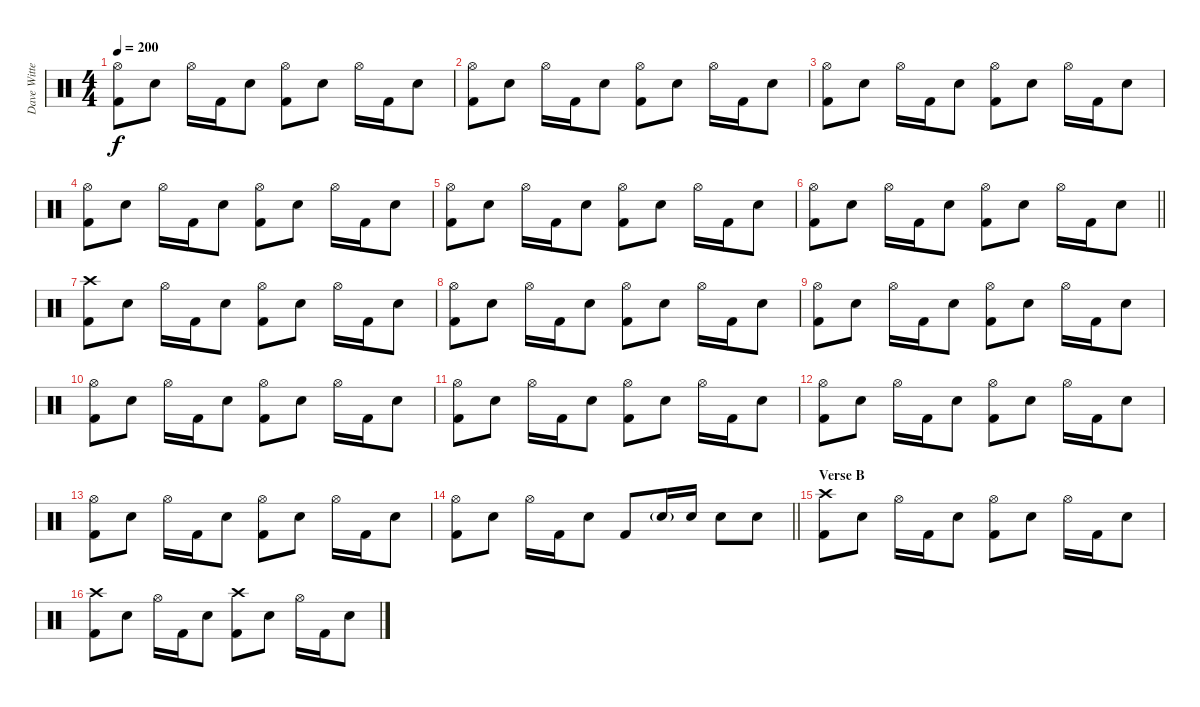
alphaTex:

\track ("Dave Witte" "Dave Witte") {instrument percussion}
\staff {score}
\articulation defaults
\ts (4 4)
\tempo 200
\clef neutral
\ks c
("Hi-Hat (open)" "Kick (hit) 2").8{dy f} "Electric Snare (hit)".8 "Hi-Hat (open)".16 "Kick (hit) 2".16 "Electric Snare (hit)".8 ("Hi-Hat (open)" "Kick (hit) 2").8 "Electric Snare (hit)".8 "Hi-Hat (open)".16 "Kick (hit) 2".16 "Electric Snare (hit)".8 |
("Hi-Hat (open)" "Kick (hit) 2").8 "Electric Snare (hit)".8 "Hi-Hat (open)".16 "Kick (hit) 2".16 "Electric Snare (hit)".8 ("Hi-Hat (open)" "Kick (hit) 2").8 "Electric Snare (hit)".8 "Hi-Hat (open)".16 "Kick (hit) 2".16 "Electric Snare (hit)".8 |
("Hi-Hat (open)" "Kick (hit) 2").8 "Electric Snare (hit)".8 "Hi-Hat (open)".16 "Kick (hit) 2".16 "Electric Snare (hit)".8 ("Hi-Hat (open)" "Kick (hit) 2").8 "Electric Snare (hit)".8 "Hi-Hat (open)".16 "Kick (hit) 2".16 "Electric Snare (hit)".8 |
("Hi-Hat (open)" "Kick (hit) 2").8 "Electric Snare (hit)".8 "Hi-Hat (open)".16 "Kick (hit) 2".16 "Electric Snare (hit)".8 ("Hi-Hat (open)" "Kick (hit) 2").8 "Electric Snare (hit)".8 "Hi-Hat (open)".16 "Kick (hit) 2".16 "Electric Snare (hit)".8 |
("Hi-Hat (open)" "Kick (hit) 2").8 "Electric Snare (hit)".8 "Hi-Hat (open)".16 "Kick (hit) 2".16 "Electric Snare (hit)".8 ("Hi-Hat (open)" "Kick (hit) 2").8 "Electric Snare (hit)".8 "Hi-Hat (open)".16 "Kick (hit) 2".16 "Electric Snare (hit)".8 |
\barLineRight lightlight
("Hi-Hat (open)" "Kick (hit) 2").8 "Electric Snare (hit)".8 "Hi-Hat (open)".16 "Kick (hit) 2".16 "Electric Snare (hit)".8 ("Hi-Hat (open)" "Kick (hit) 2").8 "Electric Snare (hit)".8 "Hi-Hat (open)".16 "Kick (hit) 2".16 "Electric Snare (hit)".8 |
("Crash high (hit)" "Kick (hit) 2").8 "Electric Snare (hit)".8 "Hi-Hat (open)".16 "Kick (hit) 2".16 "Electric Snare (hit)".8 ("Hi-Hat (open)" "Kick (hit) 2").8 "Electric Snare (hit)".8 "Hi-Hat (open)".16 "Kick (hit) 2".16 "Electric Snare (hit)".8 |
("Hi-Hat (open)" "Kick (hit) 2").8 "Electric Snare (hit)".8 "Hi-Hat (open)".16 "Kick (hit) 2".16 "Electric Snare (hit)".8 ("Hi-Hat (open)" "Kick (hit) 2").8 "Electric Snare (hit)".8 "Hi-Hat (open)".16 "Kick (hit) 2".16 "Electric Snare (hit)".8 |
("Hi-Hat (open)" "Kick (hit) 2").8 "Electric Snare (hit)".8 "Hi-Hat (open)".16 "Kick (hit) 2".16 "Electric Snare (hit)".8 ("Hi-Hat (open)" "Kick (hit) 2").8 "Electric Snare (hit)".8 "Hi-Hat (open)".16 "Kick (hit) 2".16 "Electric Snare (hit)".8 |
("Hi-Hat (open)" "Kick (hit) 2").8 "Electric Snare (hit)".8 "Hi-Hat (open)".16 "Kick (hit) 2".16 "Electric Snare (hit)".8 ("Hi-Hat (open)" "Kick (hit) 2").8 "Electric Snare (hit)".8 "Hi-Hat (open)".16 "Kick (hit) 2".16 "Electric Snare (hit)".8 |
("Hi-Hat (open)" "Kick (hit) 2").8 "Electric Snare (hit)".8 "Hi-Hat (open)".16 "Kick (hit) 2".16 "Electric Snare (hit)".8 ("Hi-Hat (open)" "Kick (hit) 2").8 "Electric Snare (hit)".8 "Hi-Hat (open)".16 "Kick (hit) 2".16 "Electric Snare (hit)".8 |
("Hi-Hat (open)" "Kick (hit) 2").8 "Electric Snare (hit)".8 "Hi-Hat (open)".16 "Kick (hit) 2".16 "Electric Snare (hit)".8 ("Hi-Hat (open)" "Kick (hit) 2").8 "Electric Snare (hit)".8 "Hi-Hat (open)".16 "Kick (hit) 2".16 "Electric Snare (hit)".8 |
("Hi-Hat (open)" "Kick (hit) 2").8 "Electric Snare (hit)".8 "Hi-Hat (open)".16 "Kick (hit) 2".16 "Electric Snare (hit)".8 ("Hi-Hat (open)" "Kick (hit) 2").8 "Electric Snare (hit)".8 "Hi-Hat (open)".16 "Kick (hit) 2".16 "Electric Snare (hit)".8 |
\barLineRight lightlight
("Hi-Hat (open)" "Kick (hit) 2").8 "Electric Snare (hit)".8 "Hi-Hat (open)".16 "Kick (hit) 2".16 "Electric Snare (hit)".8 "Kick (hit) 2".8 "Electric Snare (hit)"{g}.16 "Electric Snare (hit)".16 "Electric Snare (hit)".8 "Electric Snare (hit)".8 |
\section ("" "Verse B")
("Crash high (hit)" "Kick (hit) 2").8 "Electric Snare (hit)".8 "Hi-Hat (open)".16 "Kick (hit) 2".16 "Electric Snare (hit)".8 ("Hi-Hat (open)" "Kick (hit) 2").8 "Electric Snare (hit)".8 "Hi-Hat (open)".16 "Kick (hit) 2".16 "Electric Snare (hit)".8 |
("Crash high (hit)" "Kick (hit) 2").8 "Electric Snare (hit)".8 "Hi-Hat (open)".16 "Kick (hit) 2".16 "Electric Snare (hit)".8 ("Crash high (hit)" "Kick (hit) 2").8 "Electric Snare (hit)".8 "Hi-Hat (open)".16 "Kick (hit) 2".16 "Electric Snare (hit)".8
